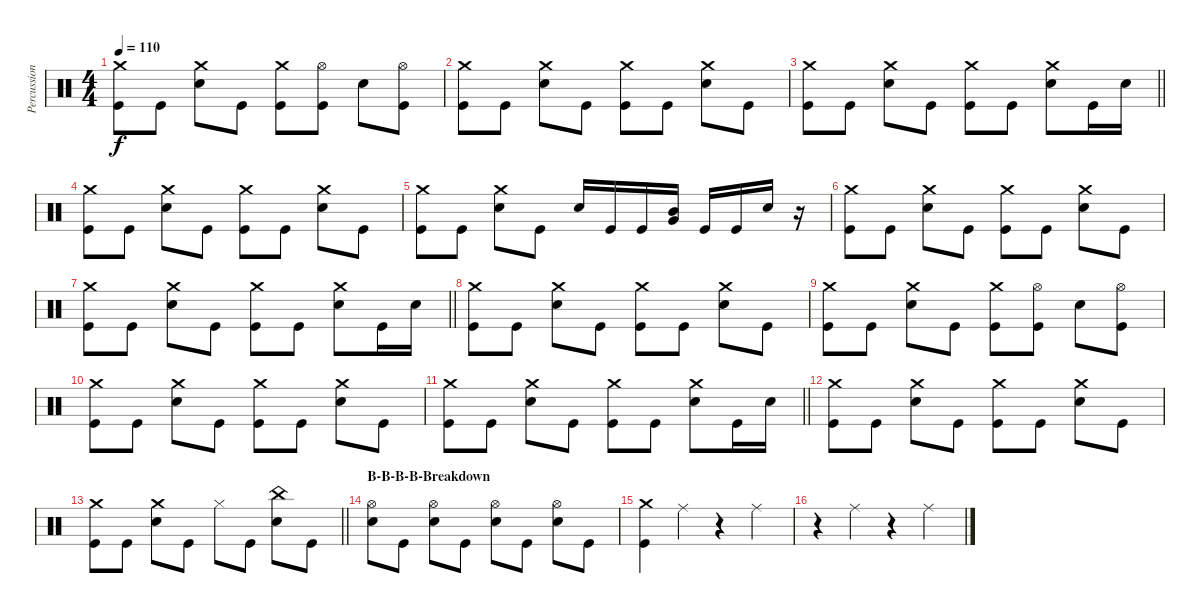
\track ("Percussion" "Percussion") {instrument percussion}
\staff {score}
\articulation defaults
\ts (4 4)
\tempo 110
\clef neutral
\ks c
("Crash medium (hit)" "Kick (hit)").8{dy f} "Kick (hit)".8 ("Crash medium (hit)" "Electric Snare (hit)").8 "Kick (hit)".8 ("Crash medium (hit)" "Kick (hit)").8 ("Hi-Hat (open)" "Kick (hit)").8 "Electric Snare (hit)".8 ("Hi-Hat (open)" "Kick (hit)").8 |
("Crash medium (hit)" "Kick (hit)").8 "Kick (hit)".8 ("Crash medium (hit)" "Electric Snare (hit)").8 "Kick (hit)".8 ("Crash medium (hit)" "Kick (hit)").8 "Kick (hit)".8 ("Crash medium (hit)" "Electric Snare (hit)").8 "Kick (hit)".8 |
\barLineRight lightlight
("Crash medium (hit)" "Kick (hit)").8 "Kick (hit)".8 ("Crash medium (hit)" "Electric Snare (hit)").8 "Kick (hit)".8 ("Crash medium (hit)" "Kick (hit)").8 "Kick (hit)".8 ("Crash medium (hit)" "Electric Snare (hit)").8 "Kick (hit)".16 "Electric Snare (hit)".16 |
("Crash medium (hit)" "Kick (hit)").8 "Kick (hit)".8 ("Crash medium (hit)" "Electric Snare (hit)").8 "Kick (hit)".8 ("Crash medium (hit)" "Kick (hit)").8 "Kick (hit)".8 ("Crash medium (hit)" "Electric Snare (hit)").8 "Kick (hit)".8 |
("Crash medium (hit)" "Kick (hit)").8 "Kick (hit)".8 ("Crash medium (hit)" "Electric Snare (hit)").8 "Kick (hit)".8 "Electric Snare (hit)".16 "Kick (hit)".16 "Kick (hit)".16 ("Mid Tom (hit)" "Very Low Tom (hit)").16 "Kick (hit)".16 "Kick (hit)".16 "Electric Snare (hit)".16 r.16 |
("Crash medium (hit)" "Kick (hit)").8 "Kick (hit)".8 ("Crash medium (hit)" "Electric Snare (hit)").8 "Kick (hit)".8 ("Crash medium (hit)" "Kick (hit)").8 "Kick (hit)".8 ("Crash medium (hit)" "Electric Snare (hit)").8 "Kick (hit)".8 |
\barLineRight lightlight
("Crash medium (hit)" "Kick (hit)").8 "Kick (hit)".8 ("Crash medium (hit)" "Electric Snare (hit)").8 "Kick (hit)".8 ("Crash medium (hit)" "Kick (hit)").8 "Kick (hit)".8 ("Crash medium (hit)" "Electric Snare (hit)").8 "Kick (hit)".16 "Electric Snare (hit)".16 |
("Crash medium (hit)" "Kick (hit)").8 "Kick (hit)".8 ("Crash medium (hit)" "Electric Snare (hit)").8 "Kick (hit)".8 ("Crash medium (hit)" "Kick (hit)").8 "Kick (hit)".8 ("Crash medium (hit)" "Electric Snare (hit)").8 "Kick (hit)".8 |
("Crash medium (hit)" "Kick (hit)").8 "Kick (hit)".8 ("Crash medium (hit)" "Electric Snare (hit)").8 "Kick (hit)".8 ("Crash medium (hit)" "Kick (hit)").8 ("Hi-Hat (open)" "Kick (hit)").8 "Electric Snare (hit)".8 ("Hi-Hat (open)" "Kick (hit)").8 |
("Crash medium (hit)" "Kick (hit)").8 "Kick (hit)".8 ("Crash medium (hit)" "Electric Snare (hit)").8 "Kick (hit)".8 ("Crash medium (hit)" "Kick (hit)").8 "Kick (hit)".8 ("Crash medium (hit)" "Electric Snare (hit)").8 "Kick (hit)".8 |
\barLineRight lightlight
("Crash medium (hit)" "Kick (hit)").8 "Kick (hit)".8 ("Crash medium (hit)" "Electric Snare (hit)").8 "Kick (hit)".8 ("Crash medium (hit)" "Kick (hit)").8 "Kick (hit)".8 ("Crash medium (hit)" "Electric Snare (hit)").8 "Kick (hit)".16 "Electric Snare (hit)".16 |
("Crash medium (hit)" "Kick (hit)").8 "Kick (hit)".8 ("Crash medium (hit)" "Electric Snare (hit)").8 "Kick (hit)".8 ("Crash medium (hit)" "Kick (hit)").8 "Kick (hit)".8 ("Crash medium (hit)" "Electric Snare (hit)").8 "Kick (hit)".8 |
\barLineRight lightlight
("Crash medium (hit)" "Kick (hit)").8 "Kick (hit)".8 ("Crash medium (hit)" "Electric Snare (hit)").8 "Kick (hit)".8 "Hi-Hat (closed)".8 "Kick (hit)".8 ("China (hit)" "Electric Snare (hit)").8 "Kick (hit)".8 |
\section ("" "B-B-B-B-Breakdown")
("Hi-Hat (open)" "Electric Snare (hit)").8 "Kick (hit)".8 ("Hi-Hat (open)" "Electric Snare (hit)").8 "Kick (hit)".8 ("Hi-Hat (open)" "Electric Snare (hit)").8 "Kick (hit)".8 ("Hi-Hat (open)" "Electric Snare (hit)").8 "Kick (hit)".8 |
("Crash medium (hit)" "Kick (hit)").4 "Ride (middle)".4 r.4 "Ride (middle)".4 |
r.4 "Ride (middle)".4 r.4 "Ride (middle)".4
